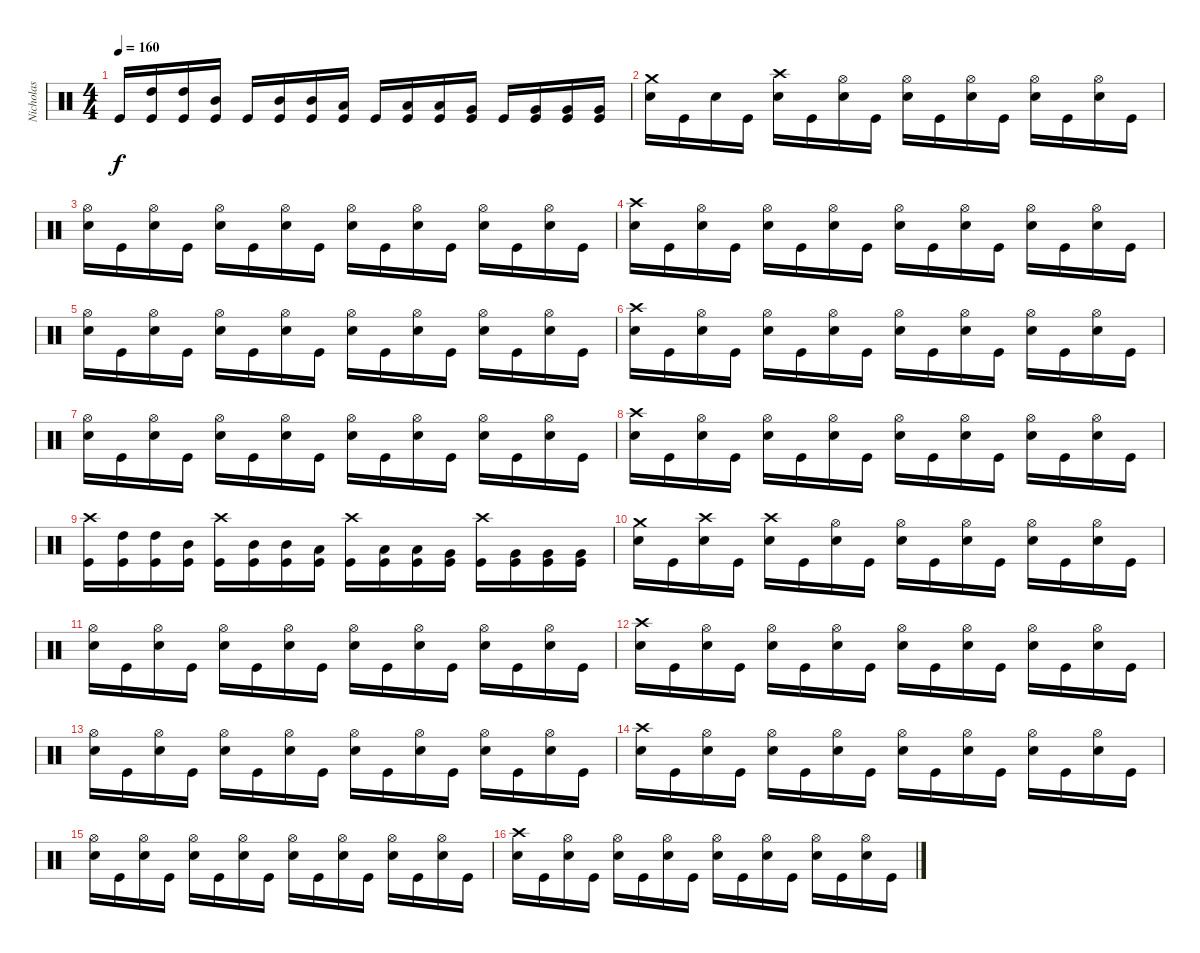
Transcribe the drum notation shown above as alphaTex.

\track ("Nicholas" "Nicholas") {instrument percussion}
\staff {score}
\articulation defaults
\ts (4 4)
\tempo 160
\tempo 172
\tempo 160
\clef neutral
\ks c "Kick (hit)".16{dy f}
("High Tom (hit)" "Kick (hit)").16 ("High Tom (hit)" "Kick (hit)").16 ("Mid Tom (hit)" "Kick (hit)").16 "Kick (hit)".16 ("Mid Tom (hit)" "Kick (hit)").16 ("Mid Tom (hit)" "Kick (hit)").16 ("Low Tom (hit)" "Kick (hit)").16 "Kick (hit)".16 ("Low Tom (hit)" "Kick (hit)").16 ("Low Tom (hit)" "Kick (hit)").16 ("Very Low Tom (hit)" "Kick (hit)").16 "Kick (hit)".16 ("Very Low Tom (hit)" "Kick (hit)").16 ("Very Low Tom (hit)" "Kick (hit)").16 ("Very Low Tom (hit)" "Kick (hit)").16 |
("Crash medium (hit)" "Electric Snare (hit)").16 "Kick (hit)".16 "Electric Snare (hit)".16 "Kick (hit)".16 ("Crash high (hit)" "Electric Snare (hit)").16 "Kick (hit)".16 ("Hi-Hat (open)" "Electric Snare (hit)").16 "Kick (hit)".16 ("Hi-Hat (open)" "Electric Snare (hit)").16 "Kick (hit)".16 ("Hi-Hat (open)" "Electric Snare (hit)").16 "Kick (hit)".16 ("Hi-Hat (open)" "Electric Snare (hit)").16 "Kick (hit)".16 ("Hi-Hat (open)" "Electric Snare (hit)").16 "Kick (hit)".16 |
("Hi-Hat (open)" "Electric Snare (hit)").16 "Kick (hit)".16 ("Hi-Hat (open)" "Electric Snare (hit)").16 "Kick (hit)".16 ("Hi-Hat (open)" "Electric Snare (hit)").16 "Kick (hit)".16 ("Hi-Hat (open)" "Electric Snare (hit)").16 "Kick (hit)".16 ("Hi-Hat (open)" "Electric Snare (hit)").16 "Kick (hit)".16 ("Hi-Hat (open)" "Electric Snare (hit)").16 "Kick (hit)".16 ("Hi-Hat (open)" "Electric Snare (hit)").16 "Kick (hit)".16 ("Hi-Hat (open)" "Electric Snare (hit)").16 "Kick (hit)".16 |
("Crash high (hit)" "Electric Snare (hit)").16 "Kick (hit)".16 ("Hi-Hat (open)" "Electric Snare (hit)").16 "Kick (hit)".16 ("Hi-Hat (open)" "Electric Snare (hit)").16 "Kick (hit)".16 ("Hi-Hat (open)" "Electric Snare (hit)").16 "Kick (hit)".16 ("Hi-Hat (open)" "Electric Snare (hit)").16 "Kick (hit)".16 ("Hi-Hat (open)" "Electric Snare (hit)").16 "Kick (hit)".16 ("Hi-Hat (open)" "Electric Snare (hit)").16 "Kick (hit)".16 ("Hi-Hat (open)" "Electric Snare (hit)").16 "Kick (hit)".16 |
("Hi-Hat (open)" "Electric Snare (hit)").16 "Kick (hit)".16 ("Hi-Hat (open)" "Electric Snare (hit)").16 "Kick (hit)".16 ("Hi-Hat (open)" "Electric Snare (hit)").16 "Kick (hit)".16 ("Hi-Hat (open)" "Electric Snare (hit)").16 "Kick (hit)".16 ("Hi-Hat (open)" "Electric Snare (hit)").16 "Kick (hit)".16 ("Hi-Hat (open)" "Electric Snare (hit)").16 "Kick (hit)".16 ("Hi-Hat (open)" "Electric Snare (hit)").16 "Kick (hit)".16 ("Hi-Hat (open)" "Electric Snare (hit)").16 "Kick (hit)".16 |
("Crash high (hit)" "Electric Snare (hit)").16 "Kick (hit)".16 ("Hi-Hat (open)" "Electric Snare (hit)").16 "Kick (hit)".16 ("Hi-Hat (open)" "Electric Snare (hit)").16 "Kick (hit)".16 ("Hi-Hat (open)" "Electric Snare (hit)").16 "Kick (hit)".16 ("Hi-Hat (open)" "Electric Snare (hit)").16 "Kick (hit)".16 ("Hi-Hat (open)" "Electric Snare (hit)").16 "Kick (hit)".16 ("Hi-Hat (open)" "Electric Snare (hit)").16 "Kick (hit)".16 ("Hi-Hat (open)" "Electric Snare (hit)").16 "Kick (hit)".16 |
("Hi-Hat (open)" "Electric Snare (hit)").16 "Kick (hit)".16 ("Hi-Hat (open)" "Electric Snare (hit)").16 "Kick (hit)".16 ("Hi-Hat (open)" "Electric Snare (hit)").16 "Kick (hit)".16 ("Hi-Hat (open)" "Electric Snare (hit)").16 "Kick (hit)".16 ("Hi-Hat (open)" "Electric Snare (hit)").16 "Kick (hit)".16 ("Hi-Hat (open)" "Electric Snare (hit)").16 "Kick (hit)".16 ("Hi-Hat (open)" "Electric Snare (hit)").16 "Kick (hit)".16 ("Hi-Hat (open)" "Electric Snare (hit)").16 "Kick (hit)".16 |
("Crash high (hit)" "Electric Snare (hit)").16 "Kick (hit)".16 ("Hi-Hat (open)" "Electric Snare (hit)").16 "Kick (hit)".16 ("Hi-Hat (open)" "Electric Snare (hit)").16 "Kick (hit)".16 ("Hi-Hat (open)" "Electric Snare (hit)").16 "Kick (hit)".16 ("Hi-Hat (open)" "Electric Snare (hit)").16 "Kick (hit)".16 ("Hi-Hat (open)" "Electric Snare (hit)").16 "Kick (hit)".16 ("Hi-Hat (open)" "Electric Snare (hit)").16 "Kick (hit)".16 ("Hi-Hat (open)" "Electric Snare (hit)").16 "Kick (hit)".16 |
("Crash high (hit)" "Kick (hit)").16 ("High Tom (hit)" "Kick (hit)").16 ("High Tom (hit)" "Kick (hit)").16 ("Mid Tom (hit)" "Kick (hit)").16 ("Crash high (hit)" "Kick (hit)").16 ("Mid Tom (hit)" "Kick (hit)").16 ("Mid Tom (hit)" "Kick (hit)").16 ("Low Tom (hit)" "Kick (hit)").16 ("Crash high (hit)" "Kick (hit)").16 ("Low Tom (hit)" "Kick (hit)").16 ("Low Tom (hit)" "Kick (hit)").16 ("Very Low Tom (hit)" "Kick (hit)").16 ("Crash high (hit)" "Kick (hit)").16 ("Very Low Tom (hit)" "Kick (hit)").16 ("Very Low Tom (hit)" "Kick (hit)").16 ("Very Low Tom (hit)" "Kick (hit)").16 |
("Crash medium (hit)" "Electric Snare (hit)").16 "Kick (hit)".16 ("Crash high (hit)" "Electric Snare (hit)").16 "Kick (hit)".16 ("Crash high (hit)" "Electric Snare (hit)").16 "Kick (hit)".16 ("Hi-Hat (open)" "Electric Snare (hit)").16 "Kick (hit)".16 ("Hi-Hat (open)" "Electric Snare (hit)").16 "Kick (hit)".16 ("Hi-Hat (open)" "Electric Snare (hit)").16 "Kick (hit)".16 ("Hi-Hat (open)" "Electric Snare (hit)").16 "Kick (hit)".16 ("Hi-Hat (open)" "Electric Snare (hit)").16 "Kick (hit)".16 |
("Hi-Hat (open)" "Electric Snare (hit)").16 "Kick (hit)".16 ("Hi-Hat (open)" "Electric Snare (hit)").16 "Kick (hit)".16 ("Hi-Hat (open)" "Electric Snare (hit)").16 "Kick (hit)".16 ("Hi-Hat (open)" "Electric Snare (hit)").16 "Kick (hit)".16 ("Hi-Hat (open)" "Electric Snare (hit)").16 "Kick (hit)".16 ("Hi-Hat (open)" "Electric Snare (hit)").16 "Kick (hit)".16 ("Hi-Hat (open)" "Electric Snare (hit)").16 "Kick (hit)".16 ("Hi-Hat (open)" "Electric Snare (hit)").16 "Kick (hit)".16 |
("Crash high (hit)" "Electric Snare (hit)").16 "Kick (hit)".16 ("Hi-Hat (open)" "Electric Snare (hit)").16 "Kick (hit)".16 ("Hi-Hat (open)" "Electric Snare (hit)").16 "Kick (hit)".16 ("Hi-Hat (open)" "Electric Snare (hit)").16 "Kick (hit)".16 ("Hi-Hat (open)" "Electric Snare (hit)").16 "Kick (hit)".16 ("Hi-Hat (open)" "Electric Snare (hit)").16 "Kick (hit)".16 ("Hi-Hat (open)" "Electric Snare (hit)").16 "Kick (hit)".16 ("Hi-Hat (open)" "Electric Snare (hit)").16 "Kick (hit)".16 |
("Hi-Hat (open)" "Electric Snare (hit)").16 "Kick (hit)".16 ("Hi-Hat (open)" "Electric Snare (hit)").16 "Kick (hit)".16 ("Hi-Hat (open)" "Electric Snare (hit)").16 "Kick (hit)".16 ("Hi-Hat (open)" "Electric Snare (hit)").16 "Kick (hit)".16 ("Hi-Hat (open)" "Electric Snare (hit)").16 "Kick (hit)".16 ("Hi-Hat (open)" "Electric Snare (hit)").16 "Kick (hit)".16 ("Hi-Hat (open)" "Electric Snare (hit)").16 "Kick (hit)".16 ("Hi-Hat (open)" "Electric Snare (hit)").16 "Kick (hit)".16 |
("Crash high (hit)" "Electric Snare (hit)").16 "Kick (hit)".16 ("Hi-Hat (open)" "Electric Snare (hit)").16 "Kick (hit)".16 ("Hi-Hat (open)" "Electric Snare (hit)").16 "Kick (hit)".16 ("Hi-Hat (open)" "Electric Snare (hit)").16 "Kick (hit)".16 ("Hi-Hat (open)" "Electric Snare (hit)").16 "Kick (hit)".16 ("Hi-Hat (open)" "Electric Snare (hit)").16 "Kick (hit)".16 ("Hi-Hat (open)" "Electric Snare (hit)").16 "Kick (hit)".16 ("Hi-Hat (open)" "Electric Snare (hit)").16 "Kick (hit)".16 |
("Hi-Hat (open)" "Electric Snare (hit)").16 "Kick (hit)".16 ("Hi-Hat (open)" "Electric Snare (hit)").16 "Kick (hit)".16 ("Hi-Hat (open)" "Electric Snare (hit)").16 "Kick (hit)".16 ("Hi-Hat (open)" "Electric Snare (hit)").16 "Kick (hit)".16 ("Hi-Hat (open)" "Electric Snare (hit)").16 "Kick (hit)".16 ("Hi-Hat (open)" "Electric Snare (hit)").16 "Kick (hit)".16 ("Hi-Hat (open)" "Electric Snare (hit)").16 "Kick (hit)".16 ("Hi-Hat (open)" "Electric Snare (hit)").16 "Kick (hit)".16 |
("Crash high (hit)" "Electric Snare (hit)").16 "Kick (hit)".16 ("Hi-Hat (open)" "Electric Snare (hit)").16 "Kick (hit)".16 ("Hi-Hat (open)" "Electric Snare (hit)").16 "Kick (hit)".16 ("Hi-Hat (open)" "Electric Snare (hit)").16 "Kick (hit)".16 ("Hi-Hat (open)" "Electric Snare (hit)").16 "Kick (hit)".16 ("Hi-Hat (open)" "Electric Snare (hit)").16 "Kick (hit)".16 ("Hi-Hat (open)" "Electric Snare (hit)").16 "Kick (hit)".16 ("Hi-Hat (open)" "Electric Snare (hit)").16 "Kick (hit)".16
